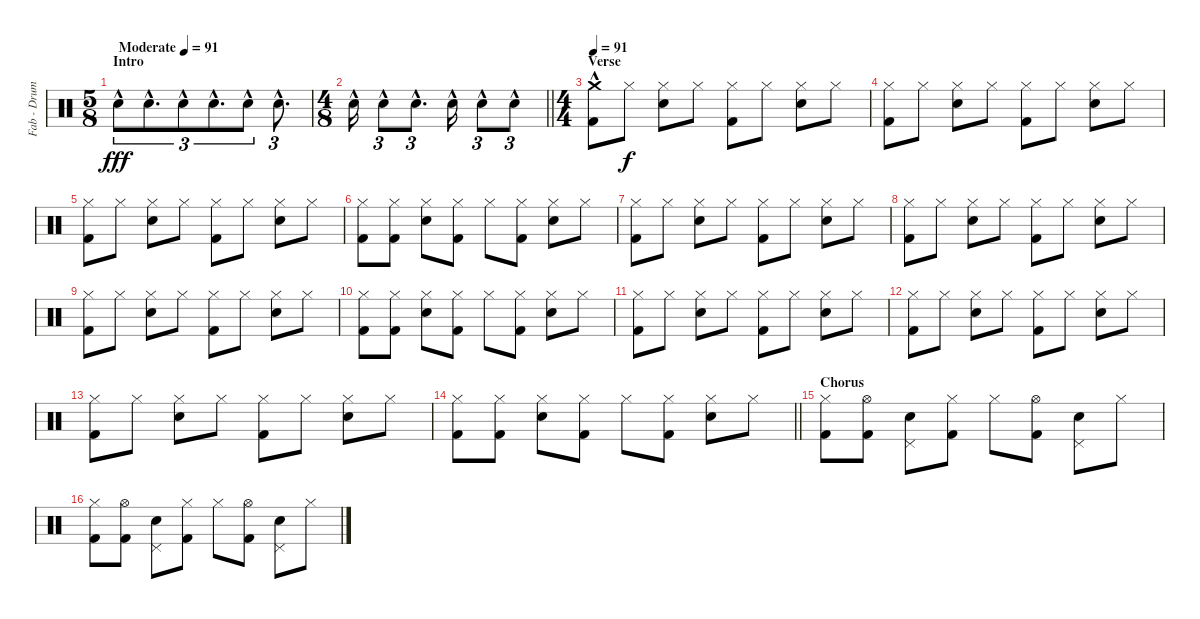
\track ("Fab - Drums MIDI" "Fab - Drum") {instrument percussion}
\staff {score}
\articulation defaults
\ts (5 8)
\section ("" "Intro")
\tempo (91 "Moderate")
\tempo 98
\tempo (91 "Moderate")
\clef neutral
\ks c "Snare (hit) 2"{hac}.8{tu (3 2) dy fff} "Snare (hit) 2"{hac}.8{d tu (3 2)} "Snare (hit) 2"{hac}.8{tu (3 2)} "Snare (hit) 2"{hac}.8{d tu (3 2)} "Snare (hit) 2"{hac}.8{tu (3 2)} "Snare (hit) 2"{hac}.8{d tu (3 2)}
|
\ts (4 8)
\barLineRight lightlight "Snare (hit) 2"{hac}.16 "Snare (hit) 2"{hac}.8{tu (3 2)} "Snare (hit) 2"{hac}.8{d tu (3 2)} "Snare (hit) 2"{hac}.16 "Snare (hit) 2"{hac}.8{tu (3 2)} "Snare (hit) 2"{hac}.8{tu (3 2)}
|
\ts (4 4)
\section ("" "Verse")
\tempo 91
("Crash medium (hit)"{hac} "Kick (hit) 2").8 "Hi-Hat (closed)".8{dy f} ("Hi-Hat (closed)" "Snare (hit) 2").8 "Hi-Hat (closed)".8 ("Hi-Hat (closed)" "Kick (hit) 2").8 "Hi-Hat (closed)".8 ("Hi-Hat (closed)" "Snare (hit) 2").8 "Hi-Hat (closed)".8 |
("Hi-Hat (closed)" "Kick (hit) 2").8 "Hi-Hat (closed)".8 ("Hi-Hat (closed)" "Snare (hit) 2").8 "Hi-Hat (closed)".8 ("Hi-Hat (closed)" "Kick (hit) 2").8 "Hi-Hat (closed)".8 ("Hi-Hat (closed)" "Snare (hit) 2").8 "Hi-Hat (closed)".8 |
("Hi-Hat (closed)" "Kick (hit) 2").8 "Hi-Hat (closed)".8 ("Hi-Hat (closed)" "Snare (hit) 2").8 "Hi-Hat (closed)".8 ("Hi-Hat (closed)" "Kick (hit) 2").8 "Hi-Hat (closed)".8 ("Hi-Hat (closed)" "Snare (hit) 2").8 "Hi-Hat (closed)".8 |
("Hi-Hat (closed)" "Kick (hit) 2").8 ("Hi-Hat (closed)" "Kick (hit) 2").8 ("Hi-Hat (closed)" "Snare (hit) 2").8 ("Hi-Hat (closed)" "Kick (hit) 2").8 "Hi-Hat (closed)".8 ("Hi-Hat (closed)" "Kick (hit) 2").8 ("Hi-Hat (closed)" "Snare (hit) 2").8 "Hi-Hat (closed)".8 |
("Hi-Hat (closed)" "Kick (hit) 2").8 "Hi-Hat (closed)".8 ("Hi-Hat (closed)" "Snare (hit) 2").8 "Hi-Hat (closed)".8 ("Hi-Hat (closed)" "Kick (hit) 2").8 "Hi-Hat (closed)".8 ("Hi-Hat (closed)" "Snare (hit) 2").8 "Hi-Hat (closed)".8 |
("Hi-Hat (closed)" "Kick (hit) 2").8 "Hi-Hat (closed)".8 ("Hi-Hat (closed)" "Snare (hit) 2").8 "Hi-Hat (closed)".8 ("Hi-Hat (closed)" "Kick (hit) 2").8 "Hi-Hat (closed)".8 ("Hi-Hat (closed)" "Snare (hit) 2").8 "Hi-Hat (closed)".8 |
("Hi-Hat (closed)" "Kick (hit) 2").8 "Hi-Hat (closed)".8 ("Hi-Hat (closed)" "Snare (hit) 2").8 "Hi-Hat (closed)".8 ("Hi-Hat (closed)" "Kick (hit) 2").8 "Hi-Hat (closed)".8 ("Hi-Hat (closed)" "Snare (hit) 2").8 "Hi-Hat (closed)".8 |
("Hi-Hat (closed)" "Kick (hit) 2").8 ("Hi-Hat (closed)" "Kick (hit) 2").8 ("Hi-Hat (closed)" "Snare (hit) 2").8 ("Hi-Hat (closed)" "Kick (hit) 2").8 "Hi-Hat (closed)".8 ("Hi-Hat (closed)" "Kick (hit) 2").8 ("Hi-Hat (closed)" "Snare (hit) 2").8 "Hi-Hat (closed)".8 |
("Hi-Hat (closed)" "Kick (hit) 2").8 "Hi-Hat (closed)".8 ("Hi-Hat (closed)" "Snare (hit) 2").8 "Hi-Hat (closed)".8 ("Hi-Hat (closed)" "Kick (hit) 2").8 "Hi-Hat (closed)".8 ("Hi-Hat (closed)" "Snare (hit) 2").8 "Hi-Hat (closed)".8 |
("Hi-Hat (closed)" "Kick (hit) 2").8 "Hi-Hat (closed)".8 ("Hi-Hat (closed)" "Snare (hit) 2").8 "Hi-Hat (closed)".8 ("Hi-Hat (closed)" "Kick (hit) 2").8 "Hi-Hat (closed)".8 ("Hi-Hat (closed)" "Snare (hit) 2").8 "Hi-Hat (closed)".8 |
("Hi-Hat (closed)" "Kick (hit) 2").8 "Hi-Hat (closed)".8 ("Hi-Hat (closed)" "Snare (hit) 2").8 "Hi-Hat (closed)".8 ("Hi-Hat (closed)" "Kick (hit) 2").8 "Hi-Hat (closed)".8 ("Hi-Hat (closed)" "Snare (hit) 2").8 "Hi-Hat (closed)".8 |
\barLineRight lightlight
("Hi-Hat (closed)" "Kick (hit) 2").8 ("Hi-Hat (closed)" "Kick (hit) 2").8 ("Hi-Hat (closed)" "Snare (hit) 2").8 ("Hi-Hat (closed)" "Kick (hit) 2").8 "Hi-Hat (closed)".8 ("Hi-Hat (closed)" "Kick (hit) 2").8 ("Hi-Hat (closed)" "Snare (hit) 2").8 "Hi-Hat (closed)".8 |
\section ("" "Chorus")
("Hi-Hat (closed)" "Kick (hit) 2").8 ("Hi-Hat (open)" "Kick (hit) 2").8 ("Pedal Hi-Hat (hit)" "Snare (hit) 2").8 ("Hi-Hat (closed)" "Kick (hit) 2").8 "Hi-Hat (closed)".8 ("Hi-Hat (open)" "Kick (hit) 2").8 ("Pedal Hi-Hat (hit)" "Snare (hit) 2").8 "Hi-Hat (closed)".8 |
("Hi-Hat (closed)" "Kick (hit) 2").8 ("Hi-Hat (open)" "Kick (hit) 2").8 ("Pedal Hi-Hat (hit)" "Snare (hit) 2").8 ("Hi-Hat (closed)" "Kick (hit) 2").8 "Hi-Hat (closed)".8 ("Hi-Hat (open)" "Kick (hit) 2").8 ("Pedal Hi-Hat (hit)" "Snare (hit) 2").8 "Hi-Hat (closed)".8
